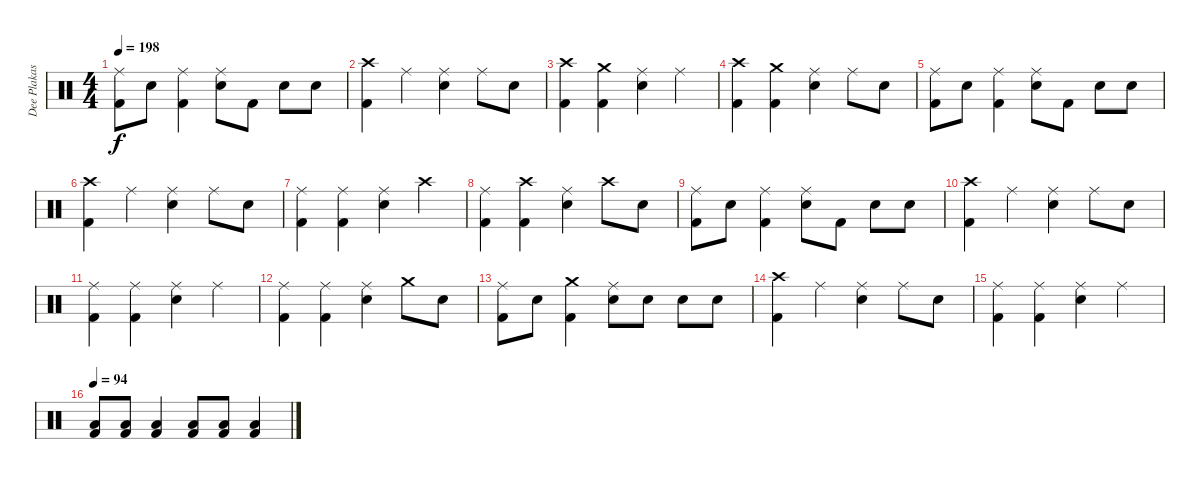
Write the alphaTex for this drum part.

\track ("Dee Plakas" "Dee Plakas") {instrument percussion}
\staff {score}
\articulation defaults
\ts (4 4)
\tempo 198
\clef neutral
\ks c
("Ride (middle)" "Kick (hit) 2").8{dy f} "Snare (hit) 2".8 ("Ride (middle)" "Kick (hit) 2").4 ("Ride (middle)" "Snare (hit) 2").8 "Kick (hit) 2".8 "Snare (hit) 2".8 "Snare (hit) 2".8 |
("Crash high (hit)" "Kick (hit) 2").4 "Ride (middle)".4 ("Ride (middle)" "Snare (hit) 2").4 "Ride (middle)".8 "Snare (hit) 2".8 |
("Crash high (hit)" "Kick (hit) 2").4 ("Crash medium (hit)" "Kick (hit) 2").4 ("Ride (middle)" "Snare (hit) 2").4 "Ride (middle)".4 |
("Crash high (hit)" "Kick (hit) 2").4 ("Crash medium (hit)" "Kick (hit) 2").4 ("Ride (middle)" "Snare (hit) 2").4 "Ride (middle)".8 "Snare (hit) 2".8 |
("Ride (middle)" "Kick (hit) 2").8 "Snare (hit) 2".8 ("Ride (middle)" "Kick (hit) 2").4 ("Ride (middle)" "Snare (hit) 2").8 "Kick (hit) 2".8 "Snare (hit) 2".8 "Snare (hit) 2".8 |
("Crash high (hit)" "Kick (hit) 2").4 "Ride (middle)".4 ("Ride (middle)" "Snare (hit) 2").4 "Ride (middle)".8 "Snare (hit) 2".8 |
("Ride (middle)" "Kick (hit) 2").4 ("Ride (middle)" "Kick (hit) 2").4 ("Ride (middle)" "Snare (hit) 2").4 "Crash high (hit)".4 |
("Ride (middle)" "Kick (hit) 2").4 ("Crash high (hit)" "Kick (hit) 2").4 ("Ride (middle)" "Snare (hit) 2").4 "Crash high (hit)".8 "Snare (hit) 2".8 |
("Ride (middle)" "Kick (hit) 2").8 "Snare (hit) 2".8 ("Ride (middle)" "Kick (hit) 2").4 ("Ride (middle)" "Snare (hit) 2").8 "Kick (hit) 2".8 "Snare (hit) 2".8 "Snare (hit) 2".8 |
("Crash high (hit)" "Kick (hit) 2").4 "Ride (middle)".4 ("Ride (middle)" "Snare (hit) 2").4 "Ride (middle)".8 "Snare (hit) 2".8 |
("Ride (middle)" "Kick (hit) 2").4 ("Ride (middle)" "Kick (hit) 2").4 ("Ride (middle)" "Snare (hit) 2").4 "Ride (middle)".4 |
("Ride (middle)" "Kick (hit) 2").4 ("Ride (middle)" "Kick (hit) 2").4 ("Ride (middle)" "Snare (hit) 2").4 "Crash medium (hit)".8 "Snare (hit) 2".8 |
("Ride (middle)" "Kick (hit) 2").8 "Snare (hit) 2".8 ("Crash medium (hit)" "Kick (hit) 2").4 ("Ride (middle)" "Snare (hit) 2").8 "Snare (hit) 2".8 "Snare (hit) 2".8 "Snare (hit) 2".8 |
("Crash high (hit)" "Kick (hit) 2").4 "Ride (middle)".4 ("Ride (middle)" "Snare (hit) 2").4 "Ride (middle)".8 "Snare (hit) 2".8 |
("Ride (middle)" "Kick (hit) 2").4 ("Ride (middle)" "Kick (hit) 2").4 ("Ride (middle)" "Snare (hit) 2").4 "Ride (middle)".4 |
\tempo 94
("Low Floor Tom (hit)" "Kick (hit) 2").8 ("Low Floor Tom (hit)" "Kick (hit) 2").8 ("Low Floor Tom (hit)" "Kick (hit) 2").4 ("Low Floor Tom (hit)" "Kick (hit) 2").8 ("Low Floor Tom (hit)" "Kick (hit) 2").8 ("Low Floor Tom (hit)" "Kick (hit) 2").4
